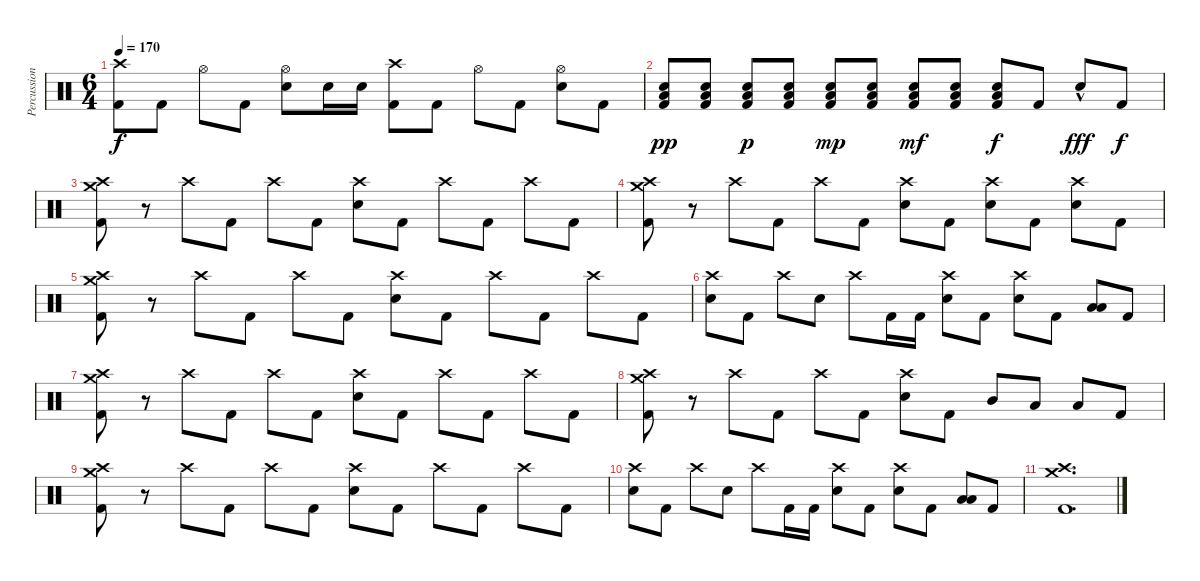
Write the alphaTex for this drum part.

\track ("Percussion" "Percussion") {instrument percussion}
\staff {score}
\articulation defaults
\ts (6 4)
\tempo 170
\clef neutral
\ks c
("Crash high (hit)" "Kick (hit) 2").8{dy f} "Kick (hit) 2".8 "Hi-Hat (open)".8 "Kick (hit) 2".8 ("Hi-Hat (open)" "Electric Snare (hit)").8 "Electric Snare (hit)".16 "Electric Snare (hit)".16 ("Crash high (hit)" "Kick (hit) 2").8 "Kick (hit) 2".8 "Hi-Hat (open)".8 "Kick (hit) 2".8 ("Hi-Hat (open)" "Electric Snare (hit)").8 "Kick (hit) 2".8 |
("Low Floor Tom (hit)" "Electric Snare (hit)" "Kick (hit) 2").8{dy pp} ("Low Floor Tom (hit)" "Electric Snare (hit)" "Kick (hit) 2").8 ("Low Floor Tom (hit)" "Electric Snare (hit)" "Kick (hit) 2").8{dy p} ("Low Floor Tom (hit)" "Electric Snare (hit)" "Kick (hit) 2").8 ("Low Floor Tom (hit)" "Electric Snare (hit)" "Kick (hit) 2").8{dy mp} ("Low Floor Tom (hit)" "Electric Snare (hit)" "Kick (hit) 2").8 ("Low Floor Tom (hit)" "Electric Snare (hit)" "Kick (hit) 2").8{dy mf} ("Low Floor Tom (hit)" "Electric Snare (hit)" "Kick (hit) 2").8 ("Low Floor Tom (hit)" "Electric Snare (hit)" "Kick (hit) 2").8{dy f} "Kick (hit) 2".8 "Electric Snare (hit)"{hac}.8{dy fff} "Kick (hit) 2".8{dy f} |
("Crash medium (hit)" "Crash high (hit)" "Kick (hit) 2").8 r.8 "Crash high (hit)".8 "Kick (hit) 2".8 "Crash high (hit)".8 "Kick (hit) 2".8 ("Crash high (hit)" "Electric Snare (hit)").8 "Kick (hit) 2".8 "Crash high (hit)".8 "Kick (hit) 2".8 "Crash high (hit)".8 "Kick (hit) 2".8 |
("Crash medium (hit)" "Crash high (hit)" "Kick (hit) 2").8 r.8 "Crash high (hit)".8 "Kick (hit) 2".8 "Crash high (hit)".8 "Kick (hit) 2".8 ("Crash high (hit)" "Electric Snare (hit)").8 "Kick (hit) 2".8 ("Crash high (hit)" "Electric Snare (hit)").8 "Kick (hit) 2".8 ("Crash high (hit)" "Electric Snare (hit)").8 "Kick (hit) 2".8 |
("Crash medium (hit)" "Crash high (hit)" "Kick (hit) 2").8 r.8 "Crash high (hit)".8 "Kick (hit) 2".8 "Crash high (hit)".8 "Kick (hit) 2".8 ("Crash high (hit)" "Electric Snare (hit)").8 "Kick (hit) 2".8 "Crash high (hit)".8 "Kick (hit) 2".8 "Crash high (hit)".8 "Kick (hit) 2".8 |
("Crash high (hit)" "Electric Snare (hit)").8 "Kick (hit) 2".8 "Crash high (hit)".8 "Electric Snare (hit)".8 "Crash high (hit)".8 "Kick (hit) 2".16 "Kick (hit) 2".16 ("Crash high (hit)" "Electric Snare (hit)").8 "Kick (hit) 2".8 ("Crash high (hit)" "Electric Snare (hit)").8 "Kick (hit) 2".8 ("Low Tom (hit)" "Low Floor Tom (hit)").8 "Kick (hit) 2".8 |
("Crash medium (hit)" "Crash high (hit)" "Kick (hit) 2").8 r.8 "Crash high (hit)".8 "Kick (hit) 2".8 "Crash high (hit)".8 "Kick (hit) 2".8 ("Crash high (hit)" "Electric Snare (hit)").8 "Kick (hit) 2".8 "Crash high (hit)".8 "Kick (hit) 2".8 "Crash high (hit)".8 "Kick (hit) 2".8 |
("Crash medium (hit)" "Crash high (hit)" "Kick (hit) 2").8 r.8 "Crash high (hit)".8 "Kick (hit) 2".8 "Crash high (hit)".8 "Kick (hit) 2".8 ("Crash high (hit)" "Electric Snare (hit)").8 "Kick (hit) 2".8 "Mid Tom (hit)".8 "Low Tom (hit)".8 "Low Floor Tom (hit)".8 "Kick (hit) 2".8 |
("Crash medium (hit)" "Crash high (hit)" "Kick (hit) 2").8 r.8 "Crash high (hit)".8 "Kick (hit) 2".8 "Crash high (hit)".8 "Kick (hit) 2".8 ("Crash high (hit)" "Electric Snare (hit)").8 "Kick (hit) 2".8 "Crash high (hit)".8 "Kick (hit) 2".8 "Crash high (hit)".8 "Kick (hit) 2".8 |
("Crash high (hit)" "Electric Snare (hit)").8 "Kick (hit) 2".8 "Crash high (hit)".8 "Electric Snare (hit)".8 "Crash high (hit)".8 "Kick (hit) 2".16 "Kick (hit) 2".16 ("Crash high (hit)" "Electric Snare (hit)").8 "Kick (hit) 2".8 ("Crash high (hit)" "Electric Snare (hit)").8 "Kick (hit) 2".8 ("Low Tom (hit)" "Low Floor Tom (hit)").8 "Kick (hit) 2".8 |
("Crash medium (hit)" "Crash high (hit)" "Kick (hit) 2").1{d}
